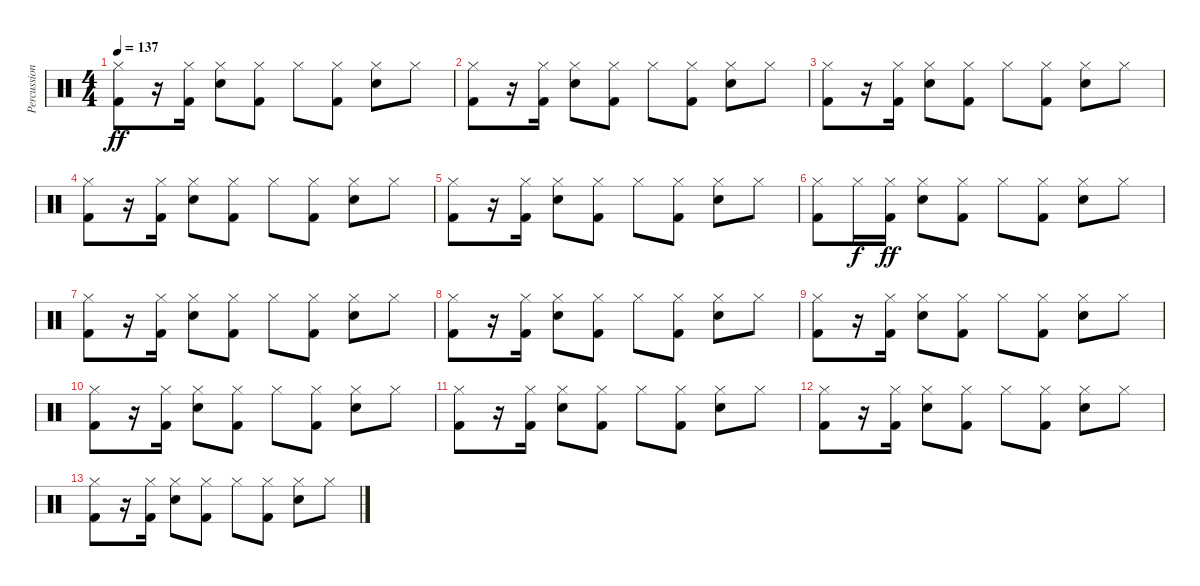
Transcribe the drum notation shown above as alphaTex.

\track ("Percussion" "Percussion") {instrument percussion}
\staff {score}
\articulation defaults
\ts (4 4)
\tempo 137
\clef neutral
\ks c
("Hi-Hat (closed)" "Kick (hit) 2").8{dy ff} r.16 ("Hi-Hat (closed)" "Kick (hit) 2").16 ("Hi-Hat (closed)" "Electric Snare (hit)").8 ("Hi-Hat (closed)" "Kick (hit) 2").8 "Hi-Hat (closed)".8 ("Hi-Hat (closed)" "Kick (hit) 2").8 ("Hi-Hat (closed)" "Electric Snare (hit)").8 "Hi-Hat (closed)".8 |
("Hi-Hat (closed)" "Kick (hit) 2").8 r.16 ("Hi-Hat (closed)" "Kick (hit) 2").16 ("Hi-Hat (closed)" "Electric Snare (hit)").8 ("Hi-Hat (closed)" "Kick (hit) 2").8 "Hi-Hat (closed)".8 ("Hi-Hat (closed)" "Kick (hit) 2").8 ("Hi-Hat (closed)" "Electric Snare (hit)").8 "Hi-Hat (closed)".8 |
("Hi-Hat (closed)" "Kick (hit) 2").8 r.16 ("Hi-Hat (closed)" "Kick (hit) 2").16 ("Hi-Hat (closed)" "Electric Snare (hit)").8 ("Hi-Hat (closed)" "Kick (hit) 2").8 "Hi-Hat (closed)".8 ("Hi-Hat (closed)" "Kick (hit) 2").8 ("Hi-Hat (closed)" "Electric Snare (hit)").8 "Hi-Hat (closed)".8 |
("Hi-Hat (closed)" "Kick (hit) 2").8 r.16 ("Hi-Hat (closed)" "Kick (hit) 2").16 ("Hi-Hat (closed)" "Electric Snare (hit)").8 ("Hi-Hat (closed)" "Kick (hit) 2").8 "Hi-Hat (closed)".8 ("Hi-Hat (closed)" "Kick (hit) 2").8 ("Hi-Hat (closed)" "Electric Snare (hit)").8 "Hi-Hat (closed)".8 |
("Hi-Hat (closed)" "Kick (hit) 2").8 r.16 ("Hi-Hat (closed)" "Kick (hit) 2").16 ("Hi-Hat (closed)" "Electric Snare (hit)").8 ("Hi-Hat (closed)" "Kick (hit) 2").8 "Hi-Hat (closed)".8 ("Hi-Hat (closed)" "Kick (hit) 2").8 ("Hi-Hat (closed)" "Electric Snare (hit)").8 "Hi-Hat (closed)".8 |
("Hi-Hat (closed)" "Kick (hit) 2").8 "Hi-Hat (closed)".16{dy f} ("Hi-Hat (closed)" "Kick (hit) 2").16{dy ff} ("Hi-Hat (closed)" "Electric Snare (hit)").8 ("Hi-Hat (closed)" "Kick (hit) 2").8 "Hi-Hat (closed)".8 ("Hi-Hat (closed)" "Kick (hit) 2").8 ("Hi-Hat (closed)" "Electric Snare (hit)").8 "Hi-Hat (closed)".8 |
("Hi-Hat (closed)" "Kick (hit) 2").8 r.16 ("Hi-Hat (closed)" "Kick (hit) 2").16 ("Hi-Hat (closed)" "Electric Snare (hit)").8 ("Hi-Hat (closed)" "Kick (hit) 2").8 "Hi-Hat (closed)".8 ("Hi-Hat (closed)" "Kick (hit) 2").8 ("Hi-Hat (closed)" "Electric Snare (hit)").8 "Hi-Hat (closed)".8 |
("Hi-Hat (closed)" "Kick (hit) 2").8 r.16 ("Hi-Hat (closed)" "Kick (hit) 2").16 ("Hi-Hat (closed)" "Electric Snare (hit)").8 ("Hi-Hat (closed)" "Kick (hit) 2").8 "Hi-Hat (closed)".8 ("Hi-Hat (closed)" "Kick (hit) 2").8 ("Hi-Hat (closed)" "Electric Snare (hit)").8 "Hi-Hat (closed)".8 |
("Hi-Hat (closed)" "Kick (hit) 2").8 r.16 ("Hi-Hat (closed)" "Kick (hit) 2").16 ("Hi-Hat (closed)" "Electric Snare (hit)").8 ("Hi-Hat (closed)" "Kick (hit) 2").8 "Hi-Hat (closed)".8 ("Hi-Hat (closed)" "Kick (hit) 2").8 ("Hi-Hat (closed)" "Electric Snare (hit)").8 "Hi-Hat (closed)".8 |
("Hi-Hat (closed)" "Kick (hit) 2").8 r.16 ("Hi-Hat (closed)" "Kick (hit) 2").16 ("Hi-Hat (closed)" "Electric Snare (hit)").8 ("Hi-Hat (closed)" "Kick (hit) 2").8 "Hi-Hat (closed)".8 ("Hi-Hat (closed)" "Kick (hit) 2").8 ("Hi-Hat (closed)" "Electric Snare (hit)").8 "Hi-Hat (closed)".8 |
("Hi-Hat (closed)" "Kick (hit) 2").8 r.16 ("Hi-Hat (closed)" "Kick (hit) 2").16 ("Hi-Hat (closed)" "Electric Snare (hit)").8 ("Hi-Hat (closed)" "Kick (hit) 2").8 "Hi-Hat (closed)".8 ("Hi-Hat (closed)" "Kick (hit) 2").8 ("Hi-Hat (closed)" "Electric Snare (hit)").8 "Hi-Hat (closed)".8 |
("Hi-Hat (closed)" "Kick (hit) 2").8 r.16 ("Hi-Hat (closed)" "Kick (hit) 2").16 ("Hi-Hat (closed)" "Electric Snare (hit)").8 ("Hi-Hat (closed)" "Kick (hit) 2").8 "Hi-Hat (closed)".8 ("Hi-Hat (closed)" "Kick (hit) 2").8 ("Hi-Hat (closed)" "Electric Snare (hit)").8 "Hi-Hat (closed)".8 |
("Hi-Hat (closed)" "Kick (hit) 2").8 r.16 ("Hi-Hat (closed)" "Kick (hit) 2").16 ("Hi-Hat (closed)" "Electric Snare (hit)").8 ("Hi-Hat (closed)" "Kick (hit) 2").8 "Hi-Hat (closed)".8 ("Hi-Hat (closed)" "Kick (hit) 2").8 ("Hi-Hat (closed)" "Electric Snare (hit)").8 "Hi-Hat (closed)".8
